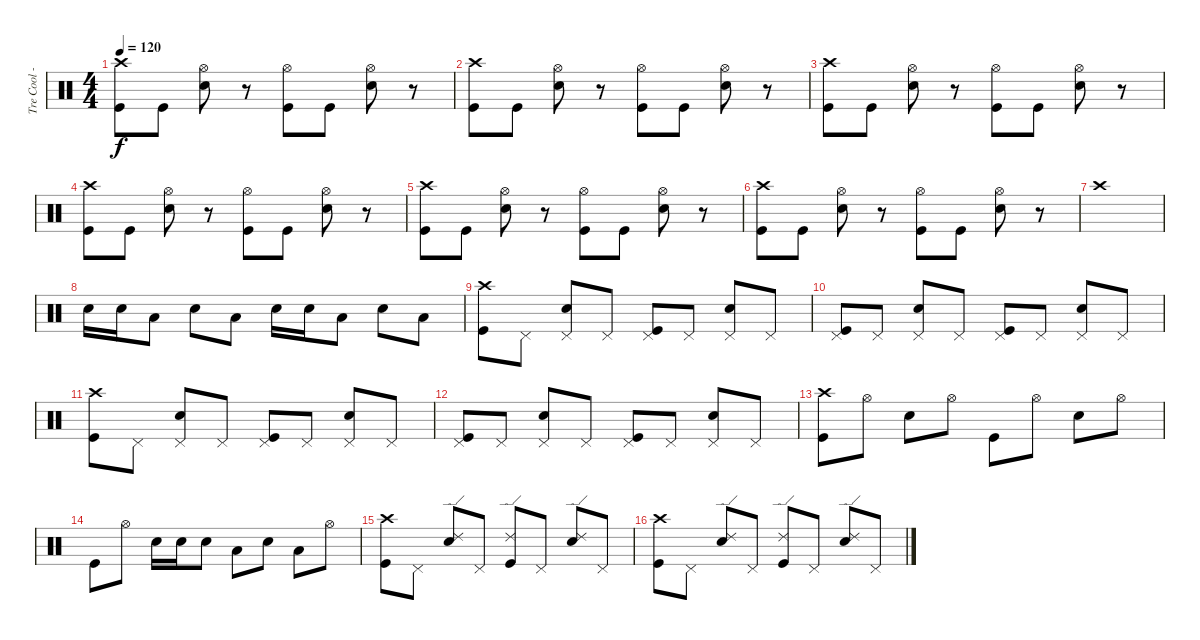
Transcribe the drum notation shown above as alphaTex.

\track ("Tre Cool - Percussion" "Tre Cool -") {instrument percussion}
\staff {score}
\articulation defaults
\ts (4 4)
\tempo 120
\clef neutral
\ks c
("Crash high (hit)" "Kick (hit)").8{dy f} "Kick (hit)".8 ("Hi-Hat (open)" "Electric Snare (hit)").8 r.8 ("Hi-Hat (open)" "Kick (hit)").8 "Kick (hit)".8 ("Hi-Hat (open)" "Electric Snare (hit)").8 r.8 |
("Crash high (hit)" "Kick (hit)").8 "Kick (hit)".8 ("Hi-Hat (open)" "Electric Snare (hit)").8 r.8 ("Hi-Hat (open)" "Kick (hit)").8 "Kick (hit)".8 ("Hi-Hat (open)" "Electric Snare (hit)").8 r.8 |
("Crash high (hit)" "Kick (hit)").8 "Kick (hit)".8 ("Hi-Hat (open)" "Electric Snare (hit)").8 r.8 ("Hi-Hat (open)" "Kick (hit)").8 "Kick (hit)".8 ("Hi-Hat (open)" "Electric Snare (hit)").8 r.8 |
("Crash high (hit)" "Kick (hit)").8 "Kick (hit)".8 ("Hi-Hat (open)" "Electric Snare (hit)").8 r.8 ("Hi-Hat (open)" "Kick (hit)").8 "Kick (hit)".8 ("Hi-Hat (open)" "Electric Snare (hit)").8 r.8 |
("Crash high (hit)" "Kick (hit)").8 "Kick (hit)".8 ("Hi-Hat (open)" "Electric Snare (hit)").8 r.8 ("Hi-Hat (open)" "Kick (hit)").8 "Kick (hit)".8 ("Hi-Hat (open)" "Electric Snare (hit)").8 r.8 |
("Crash high (hit)" "Kick (hit)").8 "Kick (hit)".8 ("Hi-Hat (open)" "Electric Snare (hit)").8 r.8 ("Hi-Hat (open)" "Kick (hit)").8 "Kick (hit)".8 ("Hi-Hat (open)" "Electric Snare (hit)").8 r.8 |
"Crash high (hit)".1 |
"Electric Snare (hit)".16 "Electric Snare (hit)".16 "Low Tom (hit)".8 "Electric Snare (hit)".8 "Low Tom (hit)".8 "Electric Snare (hit)".16 "Electric Snare (hit)".16 "Low Tom (hit)".8 "Electric Snare (hit)".8 "Low Tom (hit)".8 |
("Crash high (hit)" "Kick (hit)").8 "Pedal Hi-Hat (hit)".8 ("Pedal Hi-Hat (hit)" "Electric Snare (hit)").8 "Pedal Hi-Hat (hit)".8 ("Pedal Hi-Hat (hit)" "Kick (hit)").8 "Pedal Hi-Hat (hit)".8 ("Pedal Hi-Hat (hit)" "Electric Snare (hit)").8 "Pedal Hi-Hat (hit)".8 |
("Pedal Hi-Hat (hit)" "Kick (hit)").8 "Pedal Hi-Hat (hit)".8 ("Pedal Hi-Hat (hit)" "Electric Snare (hit)").8 "Pedal Hi-Hat (hit)".8 ("Pedal Hi-Hat (hit)" "Kick (hit)").8 "Pedal Hi-Hat (hit)".8 ("Pedal Hi-Hat (hit)" "Electric Snare (hit)").8 "Pedal Hi-Hat (hit)".8 |
("Crash high (hit)" "Kick (hit)").8 "Pedal Hi-Hat (hit)".8 ("Pedal Hi-Hat (hit)" "Electric Snare (hit)").8 "Pedal Hi-Hat (hit)".8 ("Pedal Hi-Hat (hit)" "Kick (hit)").8 "Pedal Hi-Hat (hit)".8 ("Pedal Hi-Hat (hit)" "Electric Snare (hit)").8 "Pedal Hi-Hat (hit)".8 |
("Pedal Hi-Hat (hit)" "Kick (hit)").8 "Pedal Hi-Hat (hit)".8 ("Pedal Hi-Hat (hit)" "Electric Snare (hit)").8 "Pedal Hi-Hat (hit)".8 ("Pedal Hi-Hat (hit)" "Kick (hit)").8 "Pedal Hi-Hat (hit)".8 ("Pedal Hi-Hat (hit)" "Electric Snare (hit)").8 "Pedal Hi-Hat (hit)".8 |
("Crash high (hit)" "Kick (hit)").8 "Hi-Hat (open)".8 "Electric Snare (hit)".8 "Hi-Hat (open)".8 "Kick (hit)".8 "Hi-Hat (open)".8 "Electric Snare (hit)".8 "Hi-Hat (open)".8 |
"Kick (hit)".8 "Hi-Hat (open)".8 "Electric Snare (hit)".16 "Electric Snare (hit)".16 "Electric Snare (hit)".8 "Low Tom (hit)".8 "Electric Snare (hit)".8 "Low Tom (hit)".8 "Hi-Hat (open)".8 |
("Crash high (hit)" "Kick (hit)").8 "Pedal Hi-Hat (hit)".8 ("Ride (edge) 2" "Electric Snare (hit)").8 "Pedal Hi-Hat (hit)".8 ("Ride (edge) 2" "Kick (hit)").8 "Pedal Hi-Hat (hit)".8 ("Ride (edge) 2" "Electric Snare (hit)").8 "Pedal Hi-Hat (hit)".8 |
("Crash high (hit)" "Kick (hit)").8 "Pedal Hi-Hat (hit)".8 ("Ride (edge) 2" "Electric Snare (hit)").8 "Pedal Hi-Hat (hit)".8 ("Ride (edge) 2" "Kick (hit)").8 "Pedal Hi-Hat (hit)".8 ("Ride (edge) 2" "Electric Snare (hit)").8 "Pedal Hi-Hat (hit)".8
